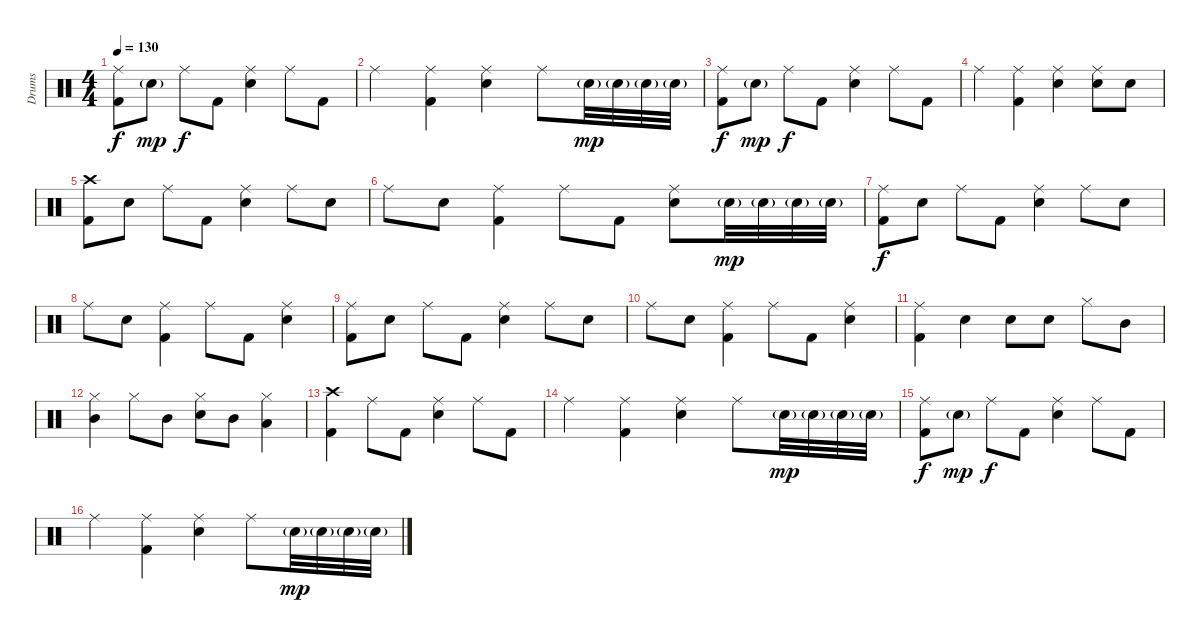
\track ("Drums" "Drums") {instrument percussion}
\staff {score}
\articulation defaults
\ts (4 4)
\tempo 130
\clef neutral
\ks c
("Ride (middle)" "Kick (hit) 2").8{dy f} "Electric Snare (hit)"{g}.8{dy mp} "Ride (middle)".8{dy f} "Kick (hit) 2".8 ("Ride (middle)" "Electric Snare (hit)").4 "Ride (middle)".8 "Kick (hit) 2".8 |
"Ride (middle)".4 ("Ride (middle)" "Kick (hit) 2").4 ("Ride (middle)" "Electric Snare (hit)").4 "Ride (middle)".8 "Electric Snare (hit)"{g}.32{dy mp} "Electric Snare (hit)"{g}.32 "Electric Snare (hit)"{g}.32 "Electric Snare (hit)"{g}.32 |
("Ride (middle)" "Kick (hit) 2").8{dy f} "Electric Snare (hit)"{g}.8{dy mp} "Ride (middle)".8{dy f} "Kick (hit) 2".8 ("Ride (middle)" "Electric Snare (hit)").4 "Ride (middle)".8 "Kick (hit) 2".8 |
"Ride (middle)".4 ("Ride (middle)" "Kick (hit) 2").4 ("Ride (middle)" "Electric Snare (hit)").4 ("Ride (middle)" "Electric Snare (hit)").8 "Electric Snare (hit)".8 |
("Crash high (hit)" "Kick (hit) 2").8 "Electric Snare (hit)".8 "Ride (middle)".8 "Kick (hit) 2".8 ("Ride (middle)" "Electric Snare (hit)").4 "Ride (middle)".8 "Electric Snare (hit)".8 |
"Ride (middle)".8 "Electric Snare (hit)".8 ("Ride (middle)" "Kick (hit) 2").4 "Ride (middle)".8 "Kick (hit) 2".8 ("Ride (middle)" "Electric Snare (hit)").8 "Electric Snare (hit)"{g}.32{dy mp} "Electric Snare (hit)"{g}.32 "Electric Snare (hit)"{g}.32 "Electric Snare (hit)"{g}.32 |
("Ride (middle)" "Kick (hit) 2").8{dy f} "Electric Snare (hit)".8 "Ride (middle)".8 "Kick (hit) 2".8 ("Ride (middle)" "Electric Snare (hit)").4 "Ride (middle)".8 "Electric Snare (hit)".8 |
"Ride (middle)".8 "Electric Snare (hit)".8 ("Ride (middle)" "Kick (hit) 2").4 "Ride (middle)".8 "Kick (hit) 2".8 ("Ride (middle)" "Electric Snare (hit)").4 |
("Ride (middle)" "Kick (hit) 2").8 "Electric Snare (hit)".8 "Ride (middle)".8 "Kick (hit) 2".8 ("Ride (middle)" "Electric Snare (hit)").4 "Ride (middle)".8 "Electric Snare (hit)".8 |
"Ride (middle)".8 "Electric Snare (hit)".8 ("Ride (middle)" "Kick (hit) 2").4 "Ride (middle)".8 "Kick (hit) 2".8 ("Ride (middle)" "Electric Snare (hit)").4 |
("Ride (middle)" "Kick (hit) 2").4 "Electric Snare (hit)".4 "Electric Snare (hit)".8 "Electric Snare (hit)".8 "Hi-Hat (closed)".8 "Mid Tom (hit)".8 |
("Hi-Hat (closed)" "Mid Tom (hit)").4 "Hi-Hat (closed)".8 "Mid Tom (hit)".8 ("Hi-Hat (closed)" "Electric Snare (hit)").8 "Mid Tom (hit)".8 ("Hi-Hat (closed)" "Low Tom (hit)").4 |
("Crash high (hit)" "Kick (hit) 2").4 "Ride (middle)".8 "Kick (hit) 2".8 ("Ride (middle)" "Electric Snare (hit)").4 "Ride (middle)".8 "Kick (hit) 2".8 |
"Ride (middle)".4 ("Ride (middle)" "Kick (hit) 2").4 ("Ride (middle)" "Electric Snare (hit)").4 "Ride (middle)".8 "Electric Snare (hit)"{g}.32{dy mp} "Electric Snare (hit)"{g}.32 "Electric Snare (hit)"{g}.32 "Electric Snare (hit)"{g}.32 |
("Ride (middle)" "Kick (hit) 2").8{dy f} "Electric Snare (hit)"{g}.8{dy mp} "Ride (middle)".8{dy f} "Kick (hit) 2".8 ("Ride (middle)" "Electric Snare (hit)").4 "Ride (middle)".8 "Kick (hit) 2".8 |
"Ride (middle)".4 ("Ride (middle)" "Kick (hit) 2").4 ("Ride (middle)" "Electric Snare (hit)").4 "Ride (middle)".8 "Electric Snare (hit)"{g}.32{dy mp} "Electric Snare (hit)"{g}.32 "Electric Snare (hit)"{g}.32 "Electric Snare (hit)"{g}.32
